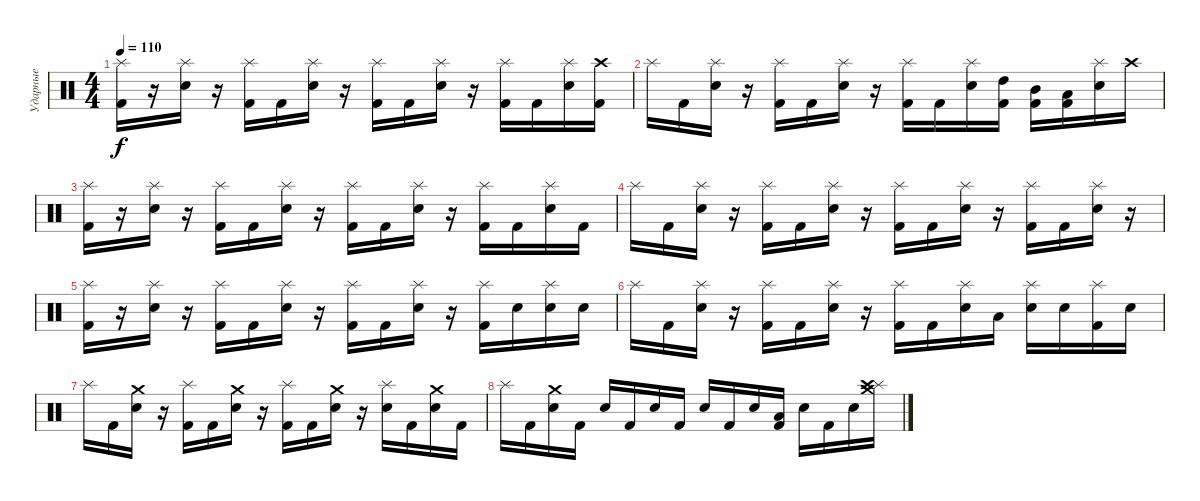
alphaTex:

\track ("Ударные" "Ударные") {instrument percussion}
\staff {score}
\articulation defaults
\ts (4 4)
\tempo 110
\clef neutral
\ks c
("Splash (hit)" "Kick (hit) 2").16{dy f} r.16 ("Splash (hit)" "Electric Snare (hit)").16 r.16 ("Splash (hit)" "Kick (hit) 2").16 "Kick (hit) 2".16 ("Splash (hit)" "Electric Snare (hit)").16 r.16 ("Splash (hit)" "Kick (hit) 2").16 "Kick (hit) 2".16 ("Splash (hit)" "Electric Snare (hit)").16 r.16 ("Splash (hit)" "Kick (hit) 2").16 "Kick (hit) 2".16 ("Splash (hit)" "Electric Snare (hit)").16 ("Crash high (hit)" "Kick (hit) 2").16 |
"Splash (hit)".16 "Kick (hit) 2".16 ("Splash (hit)" "Electric Snare (hit)").16 r.16 ("Splash (hit)" "Kick (hit) 2").16 "Kick (hit) 2".16 ("Splash (hit)" "Electric Snare (hit)").16 r.16 ("Splash (hit)" "Kick (hit) 2").16 "Kick (hit) 2".16 ("Splash (hit)" "Electric Snare (hit)").16 ("High Tom (hit)" "Kick (hit) 2").16 ("Mid Tom (hit)" "Kick (hit) 2").16 ("Low Tom (hit)" "Kick (hit) 2").16 ("Splash (hit)" "Electric Snare (hit)").16 "Crash high (hit)".16 |
("Splash (hit)" "Kick (hit) 2").16 r.16 ("Splash (hit)" "Electric Snare (hit)").16 r.16 ("Splash (hit)" "Kick (hit) 2").16 "Kick (hit) 2".16 ("Splash (hit)" "Electric Snare (hit)").16 r.16 ("Splash (hit)" "Kick (hit) 2").16 "Kick (hit) 2".16 ("Splash (hit)" "Electric Snare (hit)").16 r.16 ("Splash (hit)" "Kick (hit) 2").16 "Kick (hit) 2".16 ("Splash (hit)" "Electric Snare (hit)").16 "Kick (hit) 2".16 |
"Splash (hit)".16 "Kick (hit) 2".16 ("Splash (hit)" "Electric Snare (hit)").16 r.16 ("Splash (hit)" "Kick (hit) 2").16 "Kick (hit) 2".16 ("Splash (hit)" "Electric Snare (hit)").16 r.16 ("Splash (hit)" "Kick (hit) 2").16 "Kick (hit) 2".16 ("Splash (hit)" "Electric Snare (hit)").16 r.16 ("Splash (hit)" "Kick (hit) 2").16 "Kick (hit) 2".16 ("Splash (hit)" "Electric Snare (hit)").16 r.16 |
("Splash (hit)" "Kick (hit) 2").16 r.16 ("Splash (hit)" "Electric Snare (hit)").16 r.16 ("Splash (hit)" "Kick (hit) 2").16 "Kick (hit) 2".16 ("Splash (hit)" "Electric Snare (hit)").16 r.16 ("Splash (hit)" "Kick (hit) 2").16 "Kick (hit) 2".16 ("Splash (hit)" "Electric Snare (hit)").16 r.16 ("Splash (hit)" "Kick (hit) 2").16 "Electric Snare (hit)".16 ("Splash (hit)" "Electric Snare (hit)").16 "Electric Snare (hit)".16 |
"Splash (hit)".16 "Kick (hit) 2".16 ("Splash (hit)" "Electric Snare (hit)").16 r.16 ("Splash (hit)" "Kick (hit) 2").16 "Kick (hit) 2".16 ("Splash (hit)" "Electric Snare (hit)").16 r.16 ("Splash (hit)" "Kick (hit) 2").16 "Kick (hit) 2".16 ("Splash (hit)" "Electric Snare (hit)").16 "Low Tom (hit)".16 ("Splash (hit)" "Electric Snare (hit)").16 "Electric Snare (hit)".16 ("Splash (hit)" "Kick (hit) 2").16 "Electric Snare (hit)".16 |
"Splash (hit)".16 "Kick (hit) 2".16 ("Crash medium (hit)" "Electric Snare (hit)").16 r.16 ("Splash (hit)" "Kick (hit) 2").16 "Kick (hit) 2".16 ("Crash medium (hit)" "Electric Snare (hit)").16 r.16 ("Splash (hit)" "Kick (hit) 2").16 "Kick (hit) 2".16 ("Crash medium (hit)" "Electric Snare (hit)").16 r.16 ("Splash (hit)" "Electric Snare (hit)").16 "Kick (hit) 2".16 ("Crash medium (hit)" "Electric Snare (hit)").16 "Kick (hit) 2".16 |
"Splash (hit)".16 "Kick (hit) 2".16 ("Crash medium (hit)" "Electric Snare (hit)").16 "Kick (hit) 2".16 "Electric Snare (hit)".16 "Kick (hit) 2".16 "Electric Snare (hit)".16 "Kick (hit) 2".16 "Electric Snare (hit)".16 "Kick (hit) 2".16 "Electric Snare (hit)".16 ("Low Tom (hit)" "Kick (hit) 2").16 "Electric Snare (hit)".16 "Kick (hit) 2".16 "Electric Snare (hit)".16 ("Splash (hit)" "Crash high (hit)" "Crash medium (hit)").16
